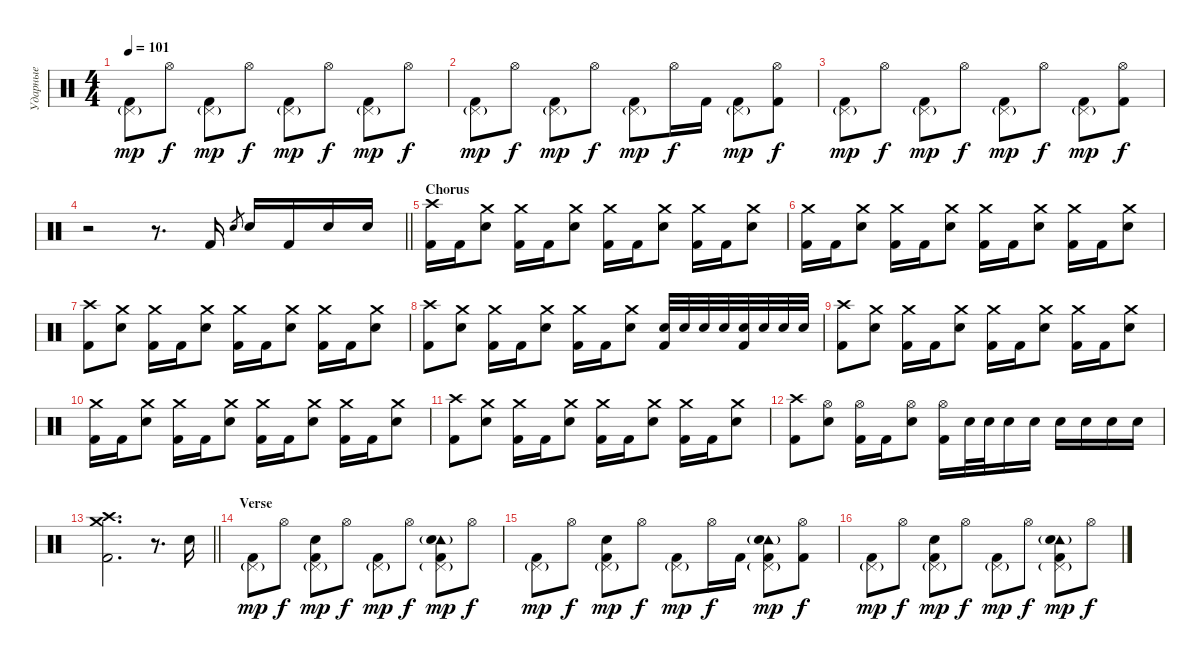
\track ("Ударные" "Ударные") {instrument percussion}
\staff {score}
\articulation defaults
\ts (4 4)
\tempo 101
\clef neutral
\ks c
("Pedal Hi-Hat (hit)"{g} "Kick (hit) 2").8{dy mp} "Hi-Hat (open)".8{dy f} ("Pedal Hi-Hat (hit)"{g} "Kick (hit) 2").8{dy mp} "Hi-Hat (open)".8{dy f} ("Pedal Hi-Hat (hit)"{g} "Kick (hit) 2").8{dy mp} "Hi-Hat (open)".8{dy f} ("Pedal Hi-Hat (hit)"{g} "Kick (hit) 2").8{dy mp} "Hi-Hat (open)".8{dy f} |
("Pedal Hi-Hat (hit)"{g} "Kick (hit) 2").8{dy mp} "Hi-Hat (open)".8{dy f} ("Pedal Hi-Hat (hit)"{g} "Kick (hit) 2").8{dy mp} "Hi-Hat (open)".8{dy f} ("Pedal Hi-Hat (hit)"{g} "Kick (hit) 2").8{dy mp} "Hi-Hat (open)".16{dy f} "Kick (hit) 2".16 ("Pedal Hi-Hat (hit)"{g} "Kick (hit) 2").8{dy mp} ("Hi-Hat (open)" "Kick (hit) 2").8{dy f} |
("Pedal Hi-Hat (hit)"{g} "Kick (hit) 2").8{dy mp} "Hi-Hat (open)".8{dy f} ("Pedal Hi-Hat (hit)"{g} "Kick (hit) 2").8{dy mp} "Hi-Hat (open)".8{dy f} ("Pedal Hi-Hat (hit)"{g} "Kick (hit) 2").8{dy mp} "Hi-Hat (open)".8{dy f} ("Pedal Hi-Hat (hit)"{g} "Kick (hit) 2").8{dy mp} ("Hi-Hat (open)" "Kick (hit) 2").8{dy f} |
\barLineRight lightlight
r.2 r.8{d} "Kick (hit) 2".16 "Electric Snare (hit)".8{gr} "Electric Snare (hit)".16 "Kick (hit) 2".16 "Electric Snare (hit)".16 "Electric Snare (hit)".16 |
\section ("" "Chorus")
("Crash high (hit)" "Kick (hit) 2").16 "Kick (hit) 2".16 ("Crash medium (hit)" "Electric Snare (hit)").8 ("Crash medium (hit)" "Kick (hit) 2").16 "Kick (hit) 2".16 ("Crash medium (hit)" "Electric Snare (hit)").8 ("Crash medium (hit)" "Kick (hit) 2").16 "Kick (hit) 2".16 ("Crash medium (hit)" "Electric Snare (hit)").8 ("Crash medium (hit)" "Kick (hit) 2").16 "Kick (hit) 2".16 ("Crash medium (hit)" "Electric Snare (hit)").8 |
("Crash medium (hit)" "Kick (hit) 2").16 "Kick (hit) 2".16 ("Crash medium (hit)" "Electric Snare (hit)").8 ("Crash medium (hit)" "Kick (hit) 2").16 "Kick (hit) 2".16 ("Crash medium (hit)" "Electric Snare (hit)").8 ("Crash medium (hit)" "Kick (hit) 2").16 "Kick (hit) 2".16 ("Crash medium (hit)" "Electric Snare (hit)").8 ("Crash medium (hit)" "Kick (hit) 2").16 "Kick (hit) 2".16 ("Crash medium (hit)" "Electric Snare (hit)").8 |
("Crash high (hit)" "Kick (hit) 2").8 ("Crash medium (hit)" "Electric Snare (hit)").8 ("Crash medium (hit)" "Kick (hit) 2").16 "Kick (hit) 2".16 ("Crash medium (hit)" "Electric Snare (hit)").8 ("Crash medium (hit)" "Kick (hit) 2").16 "Kick (hit) 2".16 ("Crash medium (hit)" "Electric Snare (hit)").8 ("Crash medium (hit)" "Kick (hit) 2").16 "Kick (hit) 2".16 ("Crash medium (hit)" "Electric Snare (hit)").8 |
("Crash high (hit)" "Kick (hit) 2").8 ("Crash medium (hit)" "Electric Snare (hit)").8 ("Crash medium (hit)" "Kick (hit) 2").16 "Kick (hit) 2".16 ("Crash medium (hit)" "Electric Snare (hit)").8 ("Crash medium (hit)" "Kick (hit) 2").16 "Kick (hit) 2".16 ("Crash medium (hit)" "Electric Snare (hit)").8 ("Electric Snare (hit)" "Kick (hit) 2").32 "Electric Snare (hit)".32 "Electric Snare (hit)".32 "Electric Snare (hit)".32 ("Electric Snare (hit)" "Kick (hit) 2").32 "Electric Snare (hit)".32 "Electric Snare (hit)".32 "Electric Snare (hit)".32 |
("Crash high (hit)" "Kick (hit) 2").8 ("Crash medium (hit)" "Electric Snare (hit)").8 ("Crash medium (hit)" "Kick (hit) 2").16 "Kick (hit) 2".16 ("Crash medium (hit)" "Electric Snare (hit)").8 ("Crash medium (hit)" "Kick (hit) 2").16 "Kick (hit) 2".16 ("Crash medium (hit)" "Electric Snare (hit)").8 ("Crash medium (hit)" "Kick (hit) 2").16 "Kick (hit) 2".16 ("Crash medium (hit)" "Electric Snare (hit)").8 |
("Crash medium (hit)" "Kick (hit) 2").16 "Kick (hit) 2".16 ("Crash medium (hit)" "Electric Snare (hit)").8 ("Crash medium (hit)" "Kick (hit) 2").16 "Kick (hit) 2".16 ("Crash medium (hit)" "Electric Snare (hit)").8 ("Crash medium (hit)" "Kick (hit) 2").16 "Kick (hit) 2".16 ("Crash medium (hit)" "Electric Snare (hit)").8 ("Crash medium (hit)" "Kick (hit) 2").16 "Kick (hit) 2".16 ("Crash medium (hit)" "Electric Snare (hit)").8 |
("Crash high (hit)" "Kick (hit) 2").8 ("Crash medium (hit)" "Electric Snare (hit)").8 ("Crash medium (hit)" "Kick (hit) 2").16 "Kick (hit) 2".16 ("Crash medium (hit)" "Electric Snare (hit)").8 ("Crash medium (hit)" "Kick (hit) 2").16 "Kick (hit) 2".16 ("Crash medium (hit)" "Electric Snare (hit)").8 ("Crash medium (hit)" "Kick (hit) 2").16 "Kick (hit) 2".16 ("Crash medium (hit)" "Electric Snare (hit)").8 |
("Crash high (hit)" "Kick (hit) 2").8 ("Hi-Hat (open)" "Electric Snare (hit)").8 ("Hi-Hat (open)" "Kick (hit) 2").16 "Kick (hit) 2".16 ("Hi-Hat (open)" "Electric Snare (hit)").8 ("Hi-Hat (open)" "Kick (hit) 2").16 "Electric Snare (hit)".32 "Electric Snare (hit)".32 "Electric Snare (hit)".16 "Electric Snare (hit)".16 "Electric Snare (hit)".16 "Electric Snare (hit)".16 "Electric Snare (hit)".16 "Electric Snare (hit)".16 |
\barLineRight lightlight
("Crash high (hit)" "Crash medium (hit)" "Kick (hit) 2").2{d} r.8{d} "Electric Snare (hit)".16 |
\section ("" "Verse")
("Pedal Hi-Hat (hit)"{g} "Kick (hit) 2").8{dy mp} "Hi-Hat (open)".8{dy f} ("Pedal Hi-Hat (hit)"{g} "Electric Snare (hit)" "Kick (hit) 2").8{dy mp} "Hi-Hat (open)".8{dy f} ("Pedal Hi-Hat (hit)"{g} "Kick (hit) 2").8{dy mp} "Hi-Hat (open)".8{dy f} ("Tambourine (hit)"{g} "Pedal Hi-Hat (hit)"{g} "Electric Snare (hit)" "Kick (hit) 2").8{dy mp} "Hi-Hat (open)".8{dy f} |
("Pedal Hi-Hat (hit)"{g} "Kick (hit) 2").8{dy mp} "Hi-Hat (open)".8{dy f} ("Pedal Hi-Hat (hit)"{g} "Electric Snare (hit)" "Kick (hit) 2").8{dy mp} "Hi-Hat (open)".8{dy f} ("Pedal Hi-Hat (hit)"{g} "Kick (hit) 2").8{dy mp} "Hi-Hat (open)".16{dy f} "Kick (hit) 2".16 ("Tambourine (hit)"{g} "Pedal Hi-Hat (hit)"{g} "Electric Snare (hit)" "Kick (hit) 2").8{dy mp} ("Hi-Hat (open)" "Kick (hit) 2").8{dy f} |
("Pedal Hi-Hat (hit)"{g} "Kick (hit) 2").8{dy mp} "Hi-Hat (open)".8{dy f} ("Pedal Hi-Hat (hit)"{g} "Electric Snare (hit)" "Kick (hit) 2").8{dy mp} "Hi-Hat (open)".8{dy f} ("Pedal Hi-Hat (hit)"{g} "Kick (hit) 2").8{dy mp} "Hi-Hat (open)".8{dy f} ("Tambourine (hit)"{g} "Pedal Hi-Hat (hit)"{g} "Electric Snare (hit)" "Kick (hit) 2").8{dy mp} "Hi-Hat (open)".8{dy f}
